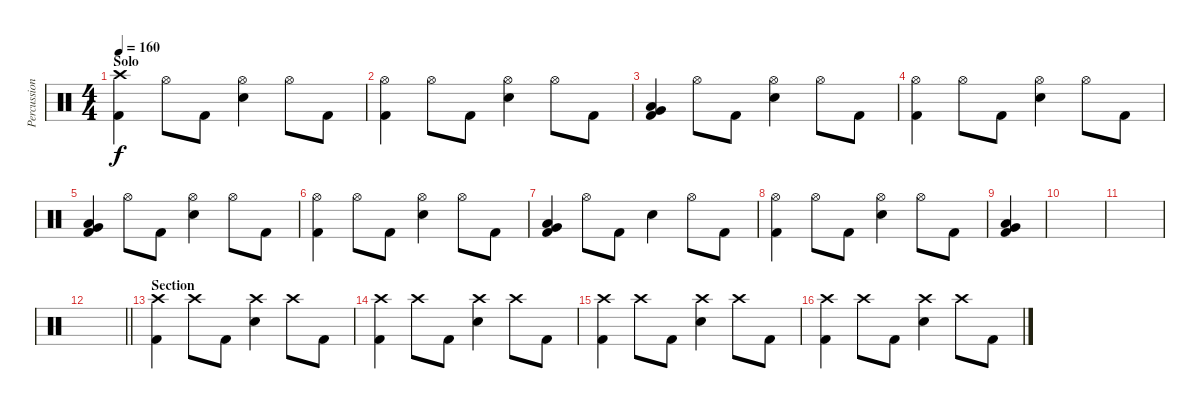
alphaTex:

\track ("Percussion" "Percussion") {instrument percussion}
\staff {score}
\articulation defaults
\ts (4 4)
\section ("" "Solo")
\tempo 160
\clef neutral
\ks c
("Kick (hit) 2" "Crash high (hit)").4{dy f} "Hi-Hat (open)".8 "Kick (hit) 2".8 ("Snare (hit) 2" "Hi-Hat (open)").4 "Hi-Hat (open)".8 "Kick (hit) 2".8 |
("Kick (hit) 2" "Hi-Hat (open)").4 "Hi-Hat (open)".8 "Kick (hit) 2".8 ("Snare (hit) 2" "Hi-Hat (open)").4 "Hi-Hat (open)".8 "Kick (hit) 2".8 |
("Kick (hit) 2" "Very Low Tom (hit)" "Low Floor Tom (hit)").4 "Hi-Hat (open)".8 "Kick (hit) 2".8 ("Snare (hit) 2" "Hi-Hat (open)").4 "Hi-Hat (open)".8 "Kick (hit) 2".8 |
("Kick (hit) 2" "Hi-Hat (open)").4 "Hi-Hat (open)".8 "Kick (hit) 2".8 ("Snare (hit) 2" "Hi-Hat (open)").4 "Hi-Hat (open)".8 "Kick (hit) 2".8 |
("Kick (hit) 2" "Very Low Tom (hit)" "Low Floor Tom (hit)").4 "Hi-Hat (open)".8 "Kick (hit) 2".8 ("Snare (hit) 2" "Hi-Hat (open)").4 "Hi-Hat (open)".8 "Kick (hit) 2".8 |
("Kick (hit) 2" "Hi-Hat (open)").4 "Hi-Hat (open)".8 "Kick (hit) 2".8 ("Snare (hit) 2" "Hi-Hat (open)").4 "Hi-Hat (open)".8 "Kick (hit) 2".8 |
("Kick (hit) 2" "Very Low Tom (hit)" "Low Floor Tom (hit)").4 "Hi-Hat (open)".8 "Kick (hit) 2".8 "Snare (hit) 2".4 "Hi-Hat (open)".8 "Kick (hit) 2".8 |
("Kick (hit) 2" "Hi-Hat (open)").4 "Hi-Hat (open)".8 "Kick (hit) 2".8 ("Snare (hit) 2" "Hi-Hat (open)").4 "Hi-Hat (open)".8 "Kick (hit) 2".8 |
("Low Floor Tom (hit)" "Very Low Tom (hit)" "Kick (hit) 2").4 |
|
|
\barLineRight lightlight
|
\section ("" "Section")
("Kick (hit) 2" "Crash high (hit)").4 "Crash high (hit)".8 "Kick (hit) 2".8 ("Snare (hit) 2" "Crash high (hit)").4 "Crash high (hit)".8 "Kick (hit) 2".8 |
("Kick (hit) 2" "Crash high (hit)").4 "Crash high (hit)".8 "Kick (hit) 2".8 ("Snare (hit) 2" "Crash high (hit)").4 "Crash high (hit)".8 "Kick (hit) 2".8 |
("Kick (hit) 2" "Crash high (hit)").4 "Crash high (hit)".8 "Kick (hit) 2".8 ("Snare (hit) 2" "Crash high (hit)").4 "Crash high (hit)".8 "Kick (hit) 2".8 |
("Kick (hit) 2" "Crash high (hit)").4 "Crash high (hit)".8 "Kick (hit) 2".8 ("Snare (hit) 2" "Crash high (hit)").4 "Crash high (hit)".8 "Kick (hit) 2".8
